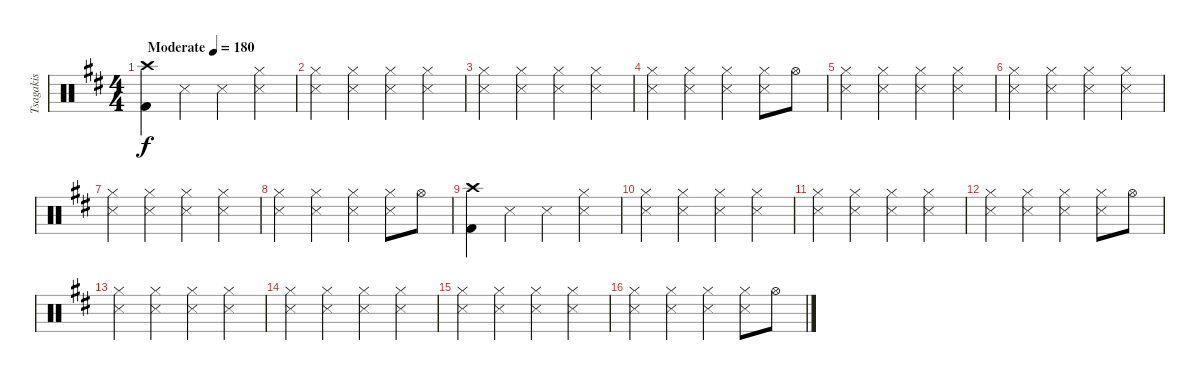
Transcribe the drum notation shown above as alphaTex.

\track ("Tsagakis" "Tsagakis") {instrument percussion}
\staff {score}
\articulation defaults
\ts (4 4)
\tempo (180 "Moderate")
\clef neutral
\ks d
("Crash high (hit)" "Kick (hit) 2").4{dy f} "Snare (side stick) 3".4 "Snare (side stick) 3".4 ("Hi-Hat (closed)" "Snare (side stick) 3").4 |
("Hi-Hat (closed)" "Snare (side stick) 3").4 ("Hi-Hat (closed)" "Snare (side stick) 3").4 ("Hi-Hat (closed)" "Snare (side stick) 3").4 ("Hi-Hat (closed)" "Snare (side stick) 3").4 |
("Hi-Hat (closed)" "Snare (side stick) 3").4 ("Hi-Hat (closed)" "Snare (side stick) 3").4 ("Hi-Hat (closed)" "Snare (side stick) 3").4 ("Hi-Hat (closed)" "Snare (side stick) 3").4 |
("Hi-Hat (closed)" "Snare (side stick) 3").4 ("Hi-Hat (closed)" "Snare (side stick) 3").4 ("Hi-Hat (closed)" "Snare (side stick) 3").4 ("Hi-Hat (closed)" "Snare (side stick) 3").8 "Hi-Hat (open)".8 |
("Hi-Hat (closed)" "Snare (side stick) 3").4 ("Hi-Hat (closed)" "Snare (side stick) 3").4 ("Hi-Hat (closed)" "Snare (side stick) 3").4 ("Hi-Hat (closed)" "Snare (side stick) 3").4 |
("Hi-Hat (closed)" "Snare (side stick) 3").4 ("Hi-Hat (closed)" "Snare (side stick) 3").4 ("Hi-Hat (closed)" "Snare (side stick) 3").4 ("Hi-Hat (closed)" "Snare (side stick) 3").4 |
("Hi-Hat (closed)" "Snare (side stick) 3").4 ("Hi-Hat (closed)" "Snare (side stick) 3").4 ("Hi-Hat (closed)" "Snare (side stick) 3").4 ("Hi-Hat (closed)" "Snare (side stick) 3").4 |
("Hi-Hat (closed)" "Snare (side stick) 3").4 ("Hi-Hat (closed)" "Snare (side stick) 3").4 ("Hi-Hat (closed)" "Snare (side stick) 3").4 ("Hi-Hat (closed)" "Snare (side stick) 3").8 "Hi-Hat (open)".8 |
("Crash high (hit)" "Kick (hit) 2").4 "Snare (side stick) 3".4 "Snare (side stick) 3".4 ("Hi-Hat (closed)" "Snare (side stick) 3").4 |
("Hi-Hat (closed)" "Snare (side stick) 3").4 ("Hi-Hat (closed)" "Snare (side stick) 3").4 ("Hi-Hat (closed)" "Snare (side stick) 3").4 ("Hi-Hat (closed)" "Snare (side stick) 3").4 |
("Hi-Hat (closed)" "Snare (side stick) 3").4 ("Hi-Hat (closed)" "Snare (side stick) 3").4 ("Hi-Hat (closed)" "Snare (side stick) 3").4 ("Hi-Hat (closed)" "Snare (side stick) 3").4 |
("Hi-Hat (closed)" "Snare (side stick) 3").4 ("Hi-Hat (closed)" "Snare (side stick) 3").4 ("Hi-Hat (closed)" "Snare (side stick) 3").4 ("Hi-Hat (closed)" "Snare (side stick) 3").8 "Hi-Hat (open)".8 |
("Hi-Hat (closed)" "Snare (side stick) 3").4 ("Hi-Hat (closed)" "Snare (side stick) 3").4 ("Hi-Hat (closed)" "Snare (side stick) 3").4 ("Hi-Hat (closed)" "Snare (side stick) 3").4 |
("Hi-Hat (closed)" "Snare (side stick) 3").4 ("Hi-Hat (closed)" "Snare (side stick) 3").4 ("Hi-Hat (closed)" "Snare (side stick) 3").4 ("Hi-Hat (closed)" "Snare (side stick) 3").4 |
("Hi-Hat (closed)" "Snare (side stick) 3").4 ("Hi-Hat (closed)" "Snare (side stick) 3").4 ("Hi-Hat (closed)" "Snare (side stick) 3").4 ("Hi-Hat (closed)" "Snare (side stick) 3").4 |
("Hi-Hat (closed)" "Snare (side stick) 3").4 ("Hi-Hat (closed)" "Snare (side stick) 3").4 ("Hi-Hat (closed)" "Snare (side stick) 3").4 ("Hi-Hat (closed)" "Snare (side stick) 3").8 "Hi-Hat (open)".8
